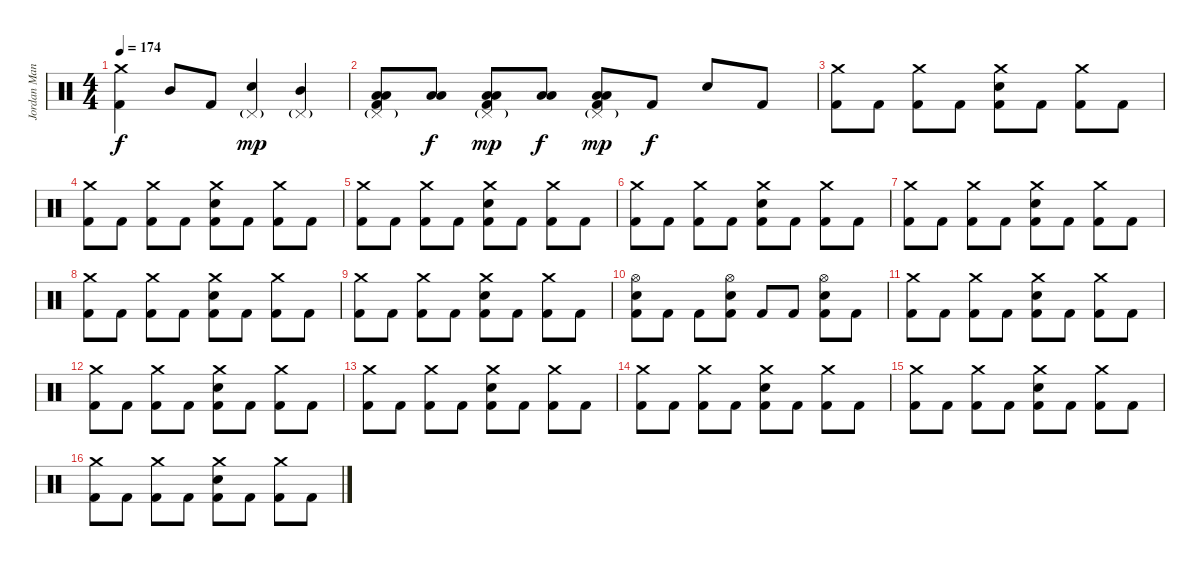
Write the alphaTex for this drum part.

\track ("Jordan Manchino (Drums)" "Jordan Man") {instrument percussion}
\staff {score}
\articulation defaults
\ts (4 4)
\tempo 174
\clef neutral
\ks c
("Crash medium (hit)" "Kick (hit) 2").4{dy f} "Mid Tom (hit)".8 "Kick (hit) 2".8 ("Pedal Hi-Hat (hit)"{g} "Snare (hit) 2").4{dy mp} ("Pedal Hi-Hat (hit)"{g} "Mid Tom (hit)").4 |
("Kick (hit) 2" "Pedal Hi-Hat (hit)"{g} "Low Tom (hit)" "Low Floor Tom (hit)").8 ("Low Tom (hit)" "Low Floor Tom (hit)").8{dy f} ("Kick (hit) 2" "Pedal Hi-Hat (hit)"{g} "Low Tom (hit)" "Low Floor Tom (hit)").8{dy mp} ("Low Tom (hit)" "Low Floor Tom (hit)").8{dy f} ("Kick (hit) 2" "Pedal Hi-Hat (hit)"{g} "Low Tom (hit)" "Low Floor Tom (hit)").8{dy mp} "Kick (hit) 2".8{dy f} "Snare (hit) 2".8 "Kick (hit) 2".8 |
("Crash medium (hit)" "Kick (hit) 2").8 "Kick (hit) 2".8 ("Crash medium (hit)" "Kick (hit) 2").8 "Kick (hit) 2".8 ("Crash medium (hit)" "Snare (hit) 2" "Kick (hit) 2").8 "Kick (hit) 2".8 ("Crash medium (hit)" "Kick (hit) 2").8 "Kick (hit) 2".8 |
("Crash medium (hit)" "Kick (hit) 2").8 "Kick (hit) 2".8 ("Crash medium (hit)" "Kick (hit) 2").8 "Kick (hit) 2".8 ("Crash medium (hit)" "Snare (hit) 2" "Kick (hit) 2").8 "Kick (hit) 2".8 ("Crash medium (hit)" "Kick (hit) 2").8 "Kick (hit) 2".8 |
("Crash medium (hit)" "Kick (hit) 2").8 "Kick (hit) 2".8 ("Crash medium (hit)" "Kick (hit) 2").8 "Kick (hit) 2".8 ("Crash medium (hit)" "Snare (hit) 2" "Kick (hit) 2").8 "Kick (hit) 2".8 ("Crash medium (hit)" "Kick (hit) 2").8 "Kick (hit) 2".8 |
("Crash medium (hit)" "Kick (hit) 2").8 "Kick (hit) 2".8 ("Crash medium (hit)" "Kick (hit) 2").8 "Kick (hit) 2".8 ("Crash medium (hit)" "Snare (hit) 2" "Kick (hit) 2").8 "Kick (hit) 2".8 ("Crash medium (hit)" "Kick (hit) 2").8 "Kick (hit) 2".8 |
("Crash medium (hit)" "Kick (hit) 2").8 "Kick (hit) 2".8 ("Crash medium (hit)" "Kick (hit) 2").8 "Kick (hit) 2".8 ("Crash medium (hit)" "Snare (hit) 2" "Kick (hit) 2").8 "Kick (hit) 2".8 ("Crash medium (hit)" "Kick (hit) 2").8 "Kick (hit) 2".8 |
("Crash medium (hit)" "Kick (hit) 2").8 "Kick (hit) 2".8 ("Crash medium (hit)" "Kick (hit) 2").8 "Kick (hit) 2".8 ("Crash medium (hit)" "Snare (hit) 2" "Kick (hit) 2").8 "Kick (hit) 2".8 ("Crash medium (hit)" "Kick (hit) 2").8 "Kick (hit) 2".8 |
("Crash medium (hit)" "Kick (hit) 2").8 "Kick (hit) 2".8 ("Crash medium (hit)" "Kick (hit) 2").8 "Kick (hit) 2".8 ("Crash medium (hit)" "Snare (hit) 2" "Kick (hit) 2").8 "Kick (hit) 2".8 ("Crash medium (hit)" "Kick (hit) 2").8 "Kick (hit) 2".8 |
("Hi-Hat (open)" "Snare (hit) 2" "Kick (hit) 2").8 "Kick (hit) 2".8 "Kick (hit) 2".8 ("Hi-Hat (open)" "Snare (hit) 2" "Kick (hit) 2").8 "Kick (hit) 2".8 "Kick (hit) 2".8 ("Hi-Hat (open)" "Snare (hit) 2" "Kick (hit) 2").8 "Kick (hit) 2".8 |
("Crash medium (hit)" "Kick (hit) 2").8 "Kick (hit) 2".8 ("Crash medium (hit)" "Kick (hit) 2").8 "Kick (hit) 2".8 ("Crash medium (hit)" "Snare (hit) 2" "Kick (hit) 2").8 "Kick (hit) 2".8 ("Crash medium (hit)" "Kick (hit) 2").8 "Kick (hit) 2".8 |
("Crash medium (hit)" "Kick (hit) 2").8 "Kick (hit) 2".8 ("Crash medium (hit)" "Kick (hit) 2").8 "Kick (hit) 2".8 ("Crash medium (hit)" "Snare (hit) 2" "Kick (hit) 2").8 "Kick (hit) 2".8 ("Crash medium (hit)" "Kick (hit) 2").8 "Kick (hit) 2".8 |
("Crash medium (hit)" "Kick (hit) 2").8 "Kick (hit) 2".8 ("Crash medium (hit)" "Kick (hit) 2").8 "Kick (hit) 2".8 ("Crash medium (hit)" "Snare (hit) 2" "Kick (hit) 2").8 "Kick (hit) 2".8 ("Crash medium (hit)" "Kick (hit) 2").8 "Kick (hit) 2".8 |
("Crash medium (hit)" "Kick (hit) 2").8 "Kick (hit) 2".8 ("Crash medium (hit)" "Kick (hit) 2").8 "Kick (hit) 2".8 ("Crash medium (hit)" "Snare (hit) 2" "Kick (hit) 2").8 "Kick (hit) 2".8 ("Crash medium (hit)" "Kick (hit) 2").8 "Kick (hit) 2".8 |
("Crash medium (hit)" "Kick (hit) 2").8 "Kick (hit) 2".8 ("Crash medium (hit)" "Kick (hit) 2").8 "Kick (hit) 2".8 ("Crash medium (hit)" "Snare (hit) 2" "Kick (hit) 2").8 "Kick (hit) 2".8 ("Crash medium (hit)" "Kick (hit) 2").8 "Kick (hit) 2".8 |
("Crash medium (hit)" "Kick (hit) 2").8 "Kick (hit) 2".8 ("Crash medium (hit)" "Kick (hit) 2").8 "Kick (hit) 2".8 ("Crash medium (hit)" "Snare (hit) 2" "Kick (hit) 2").8 "Kick (hit) 2".8 ("Crash medium (hit)" "Kick (hit) 2").8 "Kick (hit) 2".8
